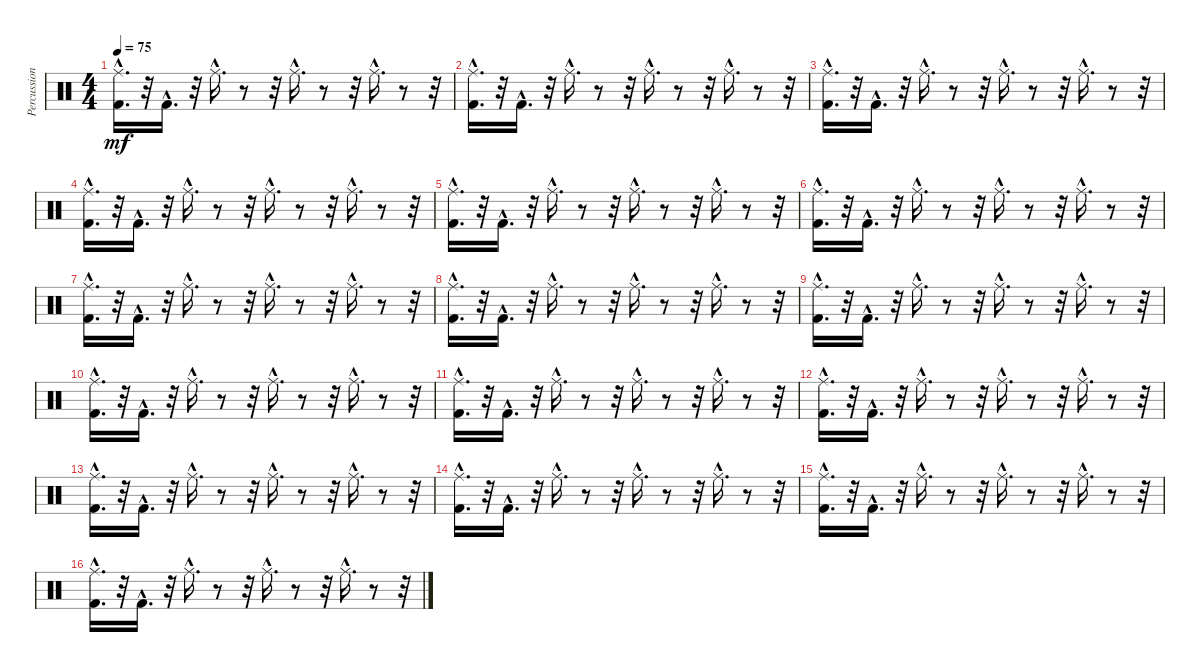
\track ("Percussion" "Percussion") {instrument percussion}
\staff {score}
\articulation defaults
\ts (4 4)
\tempo 75
\clef neutral
\ks c
("Ride (middle)"{hac} "Kick (hit) 2"{hac}).16{d dy mf} r.32 "Kick (hit) 2"{hac}.16{d} r.32 "Ride (middle)"{hac}.16{d} r.8 r.32 "Ride (middle)"{hac}.16{d} r.8 r.32 "Ride (middle)"{hac}.16{d} r.8 r.32 |
("Kick (hit) 2"{hac} "Ride (middle)"{hac}).16{d} r.32 "Kick (hit) 2"{hac}.16{d} r.32 "Ride (middle)"{hac}.16{d} r.8 r.32 "Ride (middle)"{hac}.16{d} r.8 r.32 "Ride (middle)"{hac}.16{d} r.8 r.32 |
("Kick (hit) 2"{hac} "Ride (middle)"{hac}).16{d} r.32 "Kick (hit) 2"{hac}.16{d} r.32 "Ride (middle)"{hac}.16{d} r.8 r.32 "Ride (middle)"{hac}.16{d} r.8 r.32 "Ride (middle)"{hac}.16{d} r.8 r.32 |
("Kick (hit) 2"{hac} "Ride (middle)"{hac}).16{d} r.32 "Kick (hit) 2"{hac}.16{d} r.32 "Ride (middle)"{hac}.16{d} r.8 r.32 "Ride (middle)"{hac}.16{d} r.8 r.32 "Ride (middle)"{hac}.16{d} r.8 r.32 |
("Ride (middle)"{hac} "Kick (hit) 2"{hac}).16{d} r.32 "Kick (hit) 2"{hac}.16{d} r.32 "Ride (middle)"{hac}.16{d} r.8 r.32 "Ride (middle)"{hac}.16{d} r.8 r.32 "Ride (middle)"{hac}.16{d} r.8 r.32 |
("Ride (middle)"{hac} "Kick (hit) 2"{hac}).16{d} r.32 "Kick (hit) 2"{hac}.16{d} r.32 "Ride (middle)"{hac}.16{d} r.8 r.32 "Ride (middle)"{hac}.16{d} r.8 r.32 "Ride (middle)"{hac}.16{d} r.8 r.32 |
("Kick (hit) 2"{hac} "Ride (middle)"{hac}).16{d} r.32 "Kick (hit) 2"{hac}.16{d} r.32 "Ride (middle)"{hac}.16{d} r.8 r.32 "Ride (middle)"{hac}.16{d} r.8 r.32 "Ride (middle)"{hac}.16{d} r.8 r.32 |
("Ride (middle)"{hac} "Kick (hit) 2"{hac}).16{d} r.32 "Kick (hit) 2"{hac}.16{d} r.32 "Ride (middle)"{hac}.16{d} r.8 r.32 "Ride (middle)"{hac}.16{d} r.8 r.32 "Ride (middle)"{hac}.16{d} r.8 r.32 |
("Ride (middle)"{hac} "Kick (hit) 2"{hac}).16{d} r.32 "Kick (hit) 2"{hac}.16{d} r.32 "Ride (middle)"{hac}.16{d} r.8 r.32 "Ride (middle)"{hac}.16{d} r.8 r.32 "Ride (middle)"{hac}.16{d} r.8 r.32 |
("Kick (hit) 2"{hac} "Ride (middle)"{hac}).16{d} r.32 "Kick (hit) 2"{hac}.16{d} r.32 "Ride (middle)"{hac}.16{d} r.8 r.32 "Ride (middle)"{hac}.16{d} r.8 r.32 "Ride (middle)"{hac}.16{d} r.8 r.32 |
("Ride (middle)"{hac} "Kick (hit) 2"{hac}).16{d} r.32 "Kick (hit) 2"{hac}.16{d} r.32 "Ride (middle)"{hac}.16{d} r.8 r.32 "Ride (middle)"{hac}.16{d} r.8 r.32 "Ride (middle)"{hac}.16{d} r.8 r.32 |
("Ride (middle)"{hac} "Kick (hit) 2"{hac}).16{d} r.32 "Kick (hit) 2"{hac}.16{d} r.32 "Ride (middle)"{hac}.16{d} r.8 r.32 "Ride (middle)"{hac}.16{d} r.8 r.32 "Ride (middle)"{hac}.16{d} r.8 r.32 |
("Kick (hit) 2"{hac} "Ride (middle)"{hac}).16{d} r.32 "Kick (hit) 2"{hac}.16{d} r.32 "Ride (middle)"{hac}.16{d} r.8 r.32 "Ride (middle)"{hac}.16{d} r.8 r.32 "Ride (middle)"{hac}.16{d} r.8 r.32 |
("Ride (middle)"{hac} "Kick (hit) 2"{hac}).16{d} r.32 "Kick (hit) 2"{hac}.16{d} r.32 "Ride (middle)"{hac}.16{d} r.8 r.32 "Ride (middle)"{hac}.16{d} r.8 r.32 "Ride (middle)"{hac}.16{d} r.8 r.32 |
("Ride (middle)"{hac} "Kick (hit) 2"{hac}).16{d} r.32 "Kick (hit) 2"{hac}.16{d} r.32 "Ride (middle)"{hac}.16{d} r.8 r.32 "Ride (middle)"{hac}.16{d} r.8 r.32 "Ride (middle)"{hac}.16{d} r.8 r.32 |
("Kick (hit) 2"{hac} "Ride (middle)"{hac}).16{d} r.32 "Kick (hit) 2"{hac}.16{d} r.32 "Ride (middle)"{hac}.16{d} r.8 r.32 "Ride (middle)"{hac}.16{d} r.8 r.32 "Ride (middle)"{hac}.16{d} r.8 r.32
